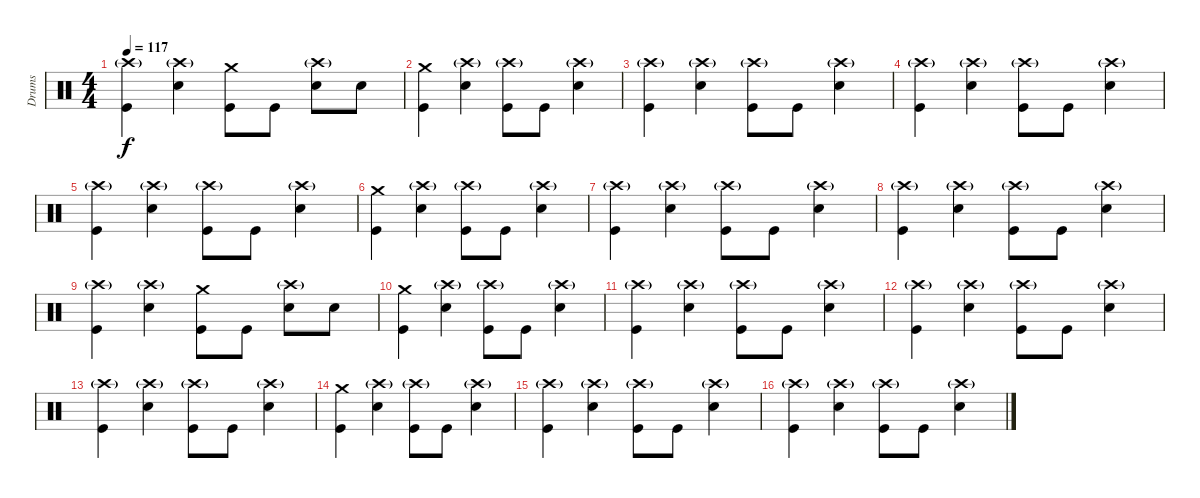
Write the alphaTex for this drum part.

\track ("Drums" "Drums") {instrument percussion}
\staff {score}
\articulation defaults
\ts (4 4)
\tempo 117
\clef neutral
\ks c
("Crash high (hit)"{g} "Kick (hit)").4{dy f} ("Crash high (hit)"{g} "Snare (hit) 2").4 ("Crash medium (hit)" "Kick (hit)").8 "Kick (hit)".8 ("Crash high (hit)"{g} "Snare (hit) 2").8 "Snare (hit) 2".8 |
("Crash medium (hit)" "Kick (hit)").4 ("Crash high (hit)"{g} "Snare (hit) 2").4 ("Crash high (hit)"{g} "Kick (hit)").8 "Kick (hit)".8 ("Crash high (hit)"{g} "Snare (hit) 2").4 |
("Crash high (hit)"{g} "Kick (hit)").4 ("Crash high (hit)"{g} "Snare (hit) 2").4 ("Crash high (hit)"{g} "Kick (hit)").8 "Kick (hit)".8 ("Crash high (hit)"{g} "Snare (hit) 2").4 |
("Crash high (hit)"{g} "Kick (hit)").4 ("Crash high (hit)"{g} "Snare (hit) 2").4 ("Crash high (hit)"{g} "Kick (hit)").8 "Kick (hit)".8 ("Crash high (hit)"{g} "Snare (hit) 2").4 |
("Crash high (hit)"{g} "Kick (hit)").4 ("Crash high (hit)"{g} "Snare (hit) 2").4 ("Crash high (hit)"{g} "Kick (hit)").8 "Kick (hit)".8 ("Crash high (hit)"{g} "Snare (hit) 2").4 |
("Crash medium (hit)" "Kick (hit)").4 ("Crash high (hit)"{g} "Snare (hit) 2").4 ("Crash high (hit)"{g} "Kick (hit)").8 "Kick (hit)".8 ("Crash high (hit)"{g} "Snare (hit) 2").4 |
("Crash high (hit)"{g} "Kick (hit)").4 ("Crash high (hit)"{g} "Snare (hit) 2").4 ("Crash high (hit)"{g} "Kick (hit)").8 "Kick (hit)".8 ("Crash high (hit)"{g} "Snare (hit) 2").4 |
("Crash high (hit)"{g} "Kick (hit)").4 ("Crash high (hit)"{g} "Snare (hit) 2").4 ("Crash high (hit)"{g} "Kick (hit)").8 "Kick (hit)".8 ("Crash high (hit)"{g} "Snare (hit) 2").4 |
("Crash high (hit)"{g} "Kick (hit)").4 ("Crash high (hit)"{g} "Snare (hit) 2").4 ("Crash medium (hit)" "Kick (hit)").8 "Kick (hit)".8 ("Crash high (hit)"{g} "Snare (hit) 2").8 "Snare (hit) 2".8 |
("Crash medium (hit)" "Kick (hit)").4 ("Crash high (hit)"{g} "Snare (hit) 2").4 ("Crash high (hit)"{g} "Kick (hit)").8 "Kick (hit)".8 ("Crash high (hit)"{g} "Snare (hit) 2").4 |
("Crash high (hit)"{g} "Kick (hit)").4 ("Crash high (hit)"{g} "Snare (hit) 2").4 ("Crash high (hit)"{g} "Kick (hit)").8 "Kick (hit)".8 ("Crash high (hit)"{g} "Snare (hit) 2").4 |
("Crash high (hit)"{g} "Kick (hit)").4 ("Crash high (hit)"{g} "Snare (hit) 2").4 ("Crash high (hit)"{g} "Kick (hit)").8 "Kick (hit)".8 ("Crash high (hit)"{g} "Snare (hit) 2").4 |
("Crash high (hit)"{g} "Kick (hit)").4 ("Crash high (hit)"{g} "Snare (hit) 2").4 ("Crash high (hit)"{g} "Kick (hit)").8 "Kick (hit)".8 ("Crash high (hit)"{g} "Snare (hit) 2").4 |
("Crash medium (hit)" "Kick (hit)").4 ("Crash high (hit)"{g} "Snare (hit) 2").4 ("Crash high (hit)"{g} "Kick (hit)").8 "Kick (hit)".8 ("Crash high (hit)"{g} "Snare (hit) 2").4 |
("Crash high (hit)"{g} "Kick (hit)").4 ("Crash high (hit)"{g} "Snare (hit) 2").4 ("Crash high (hit)"{g} "Kick (hit)").8 "Kick (hit)".8 ("Crash high (hit)"{g} "Snare (hit) 2").4 |
("Crash high (hit)"{g} "Kick (hit)").4 ("Crash high (hit)"{g} "Snare (hit) 2").4 ("Crash high (hit)"{g} "Kick (hit)").8 "Kick (hit)".8 ("Crash high (hit)"{g} "Snare (hit) 2").4
